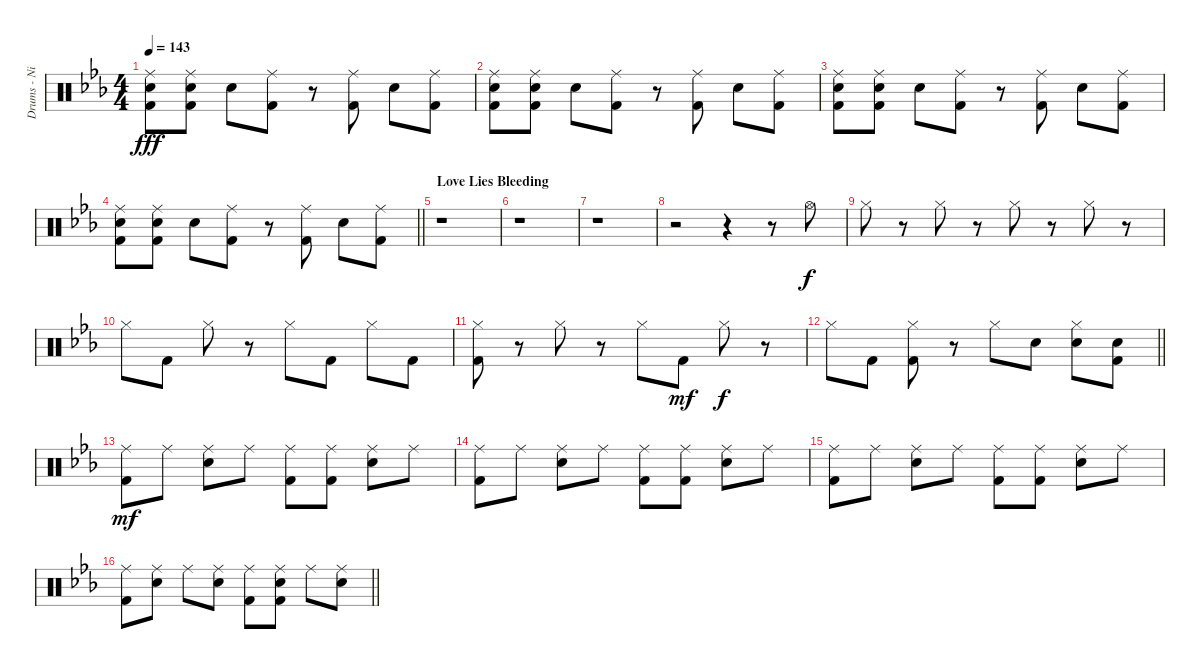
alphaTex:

\track ("Drums - Nigel Olsen" "Drums - Ni") {instrument percussion}
\staff {score}
\articulation defaults
\ts (4 4)
\tempo 143
\clef neutral
\ks cminor
("Ride (middle)" "Snare (hit) 2" "Kick (hit) 2").8{dy fff} ("Ride (middle)" "Snare (hit) 2" "Kick (hit) 2").8 "Snare (hit) 2".8 ("Ride (middle)" "Kick (hit) 2").8 r.8 ("Ride (middle)" "Kick (hit) 2").8 "Snare (hit) 2".8 ("Ride (middle)" "Kick (hit) 2").8 |
("Ride (middle)" "Snare (hit) 2" "Kick (hit) 2").8 ("Ride (middle)" "Snare (hit) 2" "Kick (hit) 2").8 "Snare (hit) 2".8 ("Ride (middle)" "Kick (hit) 2").8 r.8 ("Ride (middle)" "Kick (hit) 2").8 "Snare (hit) 2".8 ("Ride (middle)" "Kick (hit) 2").8 |
("Ride (middle)" "Snare (hit) 2" "Kick (hit) 2").8 ("Ride (middle)" "Snare (hit) 2" "Kick (hit) 2").8 "Snare (hit) 2".8 ("Ride (middle)" "Kick (hit) 2").8 r.8 ("Ride (middle)" "Kick (hit) 2").8 "Snare (hit) 2".8 ("Ride (middle)" "Kick (hit) 2").8 |
\barLineRight lightlight
("Ride (middle)" "Snare (hit) 2" "Kick (hit) 2").8 ("Ride (middle)" "Snare (hit) 2" "Kick (hit) 2").8 "Snare (hit) 2".8 ("Ride (middle)" "Kick (hit) 2").8 r.8 ("Ride (middle)" "Kick (hit) 2").8 "Snare (hit) 2".8 ("Ride (middle)" "Kick (hit) 2").8 |
\section ("" "Love Lies Bleeding")
r.1{volume 10} |
r.1 |
r.1 |
r.2 r.4 r.8 "Hi-Hat (open)".8{dy f} |
"Hi-Hat (closed)".8 r.8 "Hi-Hat (closed)".8 r.8 "Hi-Hat (closed)".8 r.8 "Hi-Hat (closed)".8 r.8 |
"Hi-Hat (closed)".8 "Kick (hit) 2".8 "Hi-Hat (closed)".8 r.8 "Hi-Hat (closed)".8 "Kick (hit) 2".8 "Hi-Hat (closed)".8 "Kick (hit) 2".8 |
("Hi-Hat (closed)" "Kick (hit) 2").8 r.8 "Hi-Hat (closed)".8 r.8 "Hi-Hat (closed)".8 "Kick (hit) 2".8{dy mf} "Hi-Hat (closed)".8{dy f} r.8 |
\barLineRight lightlight "Hi-Hat (closed)".8 "Kick (hit) 2".8
("Hi-Hat (closed)" "Kick (hit) 2").8 r.8 "Hi-Hat (closed)".8 "Snare (hit) 2".8 ("Hi-Hat (closed)" "Snare (hit) 2").8 ("Snare (hit) 2" "Kick (hit) 2").8 |
("Ride (middle)" "Kick (hit) 2").8{dy mf} "Ride (middle)".8 ("Ride (middle)" "Snare (hit) 2").8 "Ride (middle)".8 ("Ride (middle)" "Kick (hit) 2").8 ("Ride (middle)" "Kick (hit) 2").8 ("Ride (middle)" "Snare (hit) 2").8 "Ride (middle)".8 |
("Ride (middle)" "Kick (hit) 2").8 "Ride (middle)".8 ("Ride (middle)" "Snare (hit) 2").8 "Ride (middle)".8 ("Ride (middle)" "Kick (hit) 2").8 ("Ride (middle)" "Kick (hit) 2").8 ("Ride (middle)" "Snare (hit) 2").8 "Ride (middle)".8 |
("Ride (middle)" "Kick (hit) 2").8 "Ride (middle)".8 ("Ride (middle)" "Snare (hit) 2").8 "Ride (middle)".8 ("Ride (middle)" "Kick (hit) 2").8 ("Ride (middle)" "Kick (hit) 2").8 ("Ride (middle)" "Snare (hit) 2").8 "Ride (middle)".8 |
\barLineRight lightlight
("Ride (middle)" "Kick (hit) 2").8 ("Ride (middle)" "Snare (hit) 2").8 "Ride (middle)".8 ("Ride (middle)" "Snare (hit) 2").8 ("Ride (middle)" "Kick (hit) 2").8 ("Ride (middle)" "Snare (hit) 2" "Kick (hit) 2").8 "Ride (middle)".8 ("Ride (middle)" "Snare (hit) 2").8
